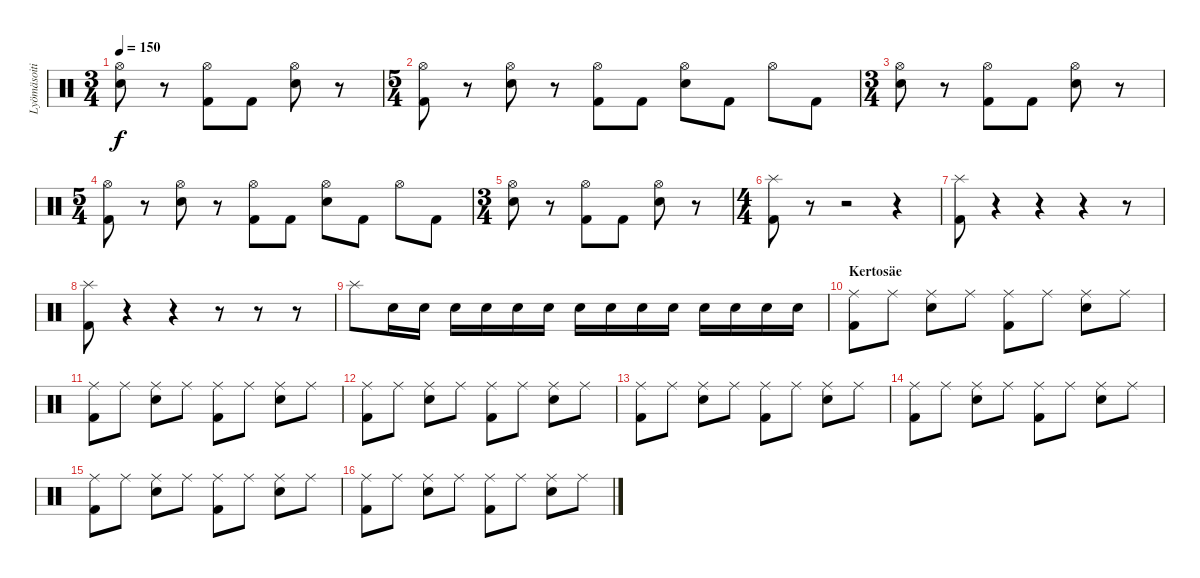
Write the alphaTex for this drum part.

\track ("Lyömäsoitin" "Lyömäsoiti") {instrument percussion}
\staff {score}
\articulation defaults
\ts (3 4)
\tempo 150
\clef neutral
\ks c
("Hi-Hat (open)" "Electric Snare (hit)").8{dy f} r.8 ("Hi-Hat (open)" "Kick (hit) 2").8 "Kick (hit) 2".8 ("Hi-Hat (open)" "Electric Snare (hit)").8 r.8 |
\ts (5 4)
("Hi-Hat (open)" "Kick (hit) 2").8 r.8 ("Hi-Hat (open)" "Electric Snare (hit)").8 r.8 ("Hi-Hat (open)" "Kick (hit) 2").8 "Kick (hit) 2".8 ("Hi-Hat (open)" "Electric Snare (hit)").8 "Kick (hit) 2".8 "Hi-Hat (open)".8 "Kick (hit) 2".8 |
\ts (3 4)
("Hi-Hat (open)" "Electric Snare (hit)").8 r.8 ("Hi-Hat (open)" "Kick (hit) 2").8 "Kick (hit) 2".8 ("Hi-Hat (open)" "Electric Snare (hit)").8 r.8 |
\ts (5 4)
("Hi-Hat (open)" "Kick (hit) 2").8 r.8 ("Hi-Hat (open)" "Electric Snare (hit)").8 r.8 ("Hi-Hat (open)" "Kick (hit) 2").8 "Kick (hit) 2".8 ("Hi-Hat (open)" "Electric Snare (hit)").8 "Kick (hit) 2".8 "Hi-Hat (open)".8 "Kick (hit) 2".8 |
\ts (3 4)
("Hi-Hat (open)" "Electric Snare (hit)").8 r.8 ("Hi-Hat (open)" "Kick (hit) 2").8 "Kick (hit) 2".8 ("Hi-Hat (open)" "Electric Snare (hit)").8 r.8 |
\ts (4 4)
("Splash (hit)" "Kick (hit) 2").8 r.8 r.2 r.4 |
("Splash (hit)" "Kick (hit) 2").8 r.4 r.4 r.4 r.8 |
("Splash (hit)" "Kick (hit) 2").8 r.4 r.4 r.8 r.8 r.8 |
"Splash (hit)".8 "Electric Snare (hit)".16 "Electric Snare (hit)".16 "Electric Snare (hit)".16 "Electric Snare (hit)".16 "Electric Snare (hit)".16 "Electric Snare (hit)".16 "Electric Snare (hit)".16 "Electric Snare (hit)".16 "Electric Snare (hit)".16 "Electric Snare (hit)".16 "Electric Snare (hit)".16 "Electric Snare (hit)".16 "Electric Snare (hit)".16 "Electric Snare (hit)".16 |
\section ("" "Kertosäe")
("Ride (middle)" "Kick (hit) 2").8 "Ride (middle)".8 ("Ride (middle)" "Electric Snare (hit)").8 "Ride (middle)".8 ("Ride (middle)" "Kick (hit) 2").8 "Ride (middle)".8 ("Ride (middle)" "Electric Snare (hit)").8 "Ride (middle)".8 |
("Ride (middle)" "Kick (hit) 2").8 "Ride (middle)".8 ("Ride (middle)" "Electric Snare (hit)").8 "Ride (middle)".8 ("Ride (middle)" "Kick (hit) 2").8 "Ride (middle)".8 ("Ride (middle)" "Electric Snare (hit)").8 "Ride (middle)".8 |
("Ride (middle)" "Kick (hit) 2").8 "Ride (middle)".8 ("Ride (middle)" "Electric Snare (hit)").8 "Ride (middle)".8 ("Ride (middle)" "Kick (hit) 2").8 "Ride (middle)".8 ("Ride (middle)" "Electric Snare (hit)").8 "Ride (middle)".8 |
("Ride (middle)" "Kick (hit) 2").8 "Ride (middle)".8 ("Ride (middle)" "Electric Snare (hit)").8 "Ride (middle)".8 ("Ride (middle)" "Kick (hit) 2").8 "Ride (middle)".8 ("Ride (middle)" "Electric Snare (hit)").8 "Ride (middle)".8 |
("Ride (middle)" "Kick (hit) 2").8 "Ride (middle)".8 ("Ride (middle)" "Electric Snare (hit)").8 "Ride (middle)".8 ("Ride (middle)" "Kick (hit) 2").8 "Ride (middle)".8 ("Ride (middle)" "Electric Snare (hit)").8 "Ride (middle)".8 |
("Ride (middle)" "Kick (hit) 2").8 "Ride (middle)".8 ("Ride (middle)" "Electric Snare (hit)").8 "Ride (middle)".8 ("Ride (middle)" "Kick (hit) 2").8 "Ride (middle)".8 ("Ride (middle)" "Electric Snare (hit)").8 "Ride (middle)".8 |
("Ride (middle)" "Kick (hit) 2").8 "Ride (middle)".8 ("Ride (middle)" "Electric Snare (hit)").8 "Ride (middle)".8 ("Ride (middle)" "Kick (hit) 2").8 "Ride (middle)".8 ("Ride (middle)" "Electric Snare (hit)").8 "Ride (middle)".8
